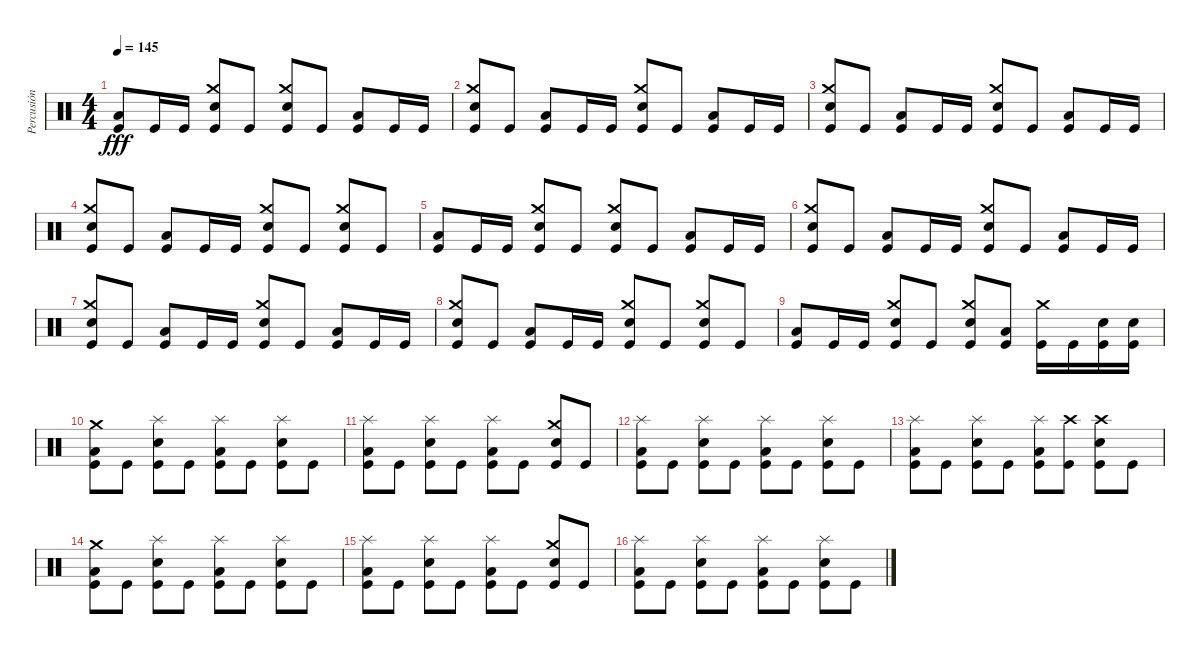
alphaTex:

\track ("Percusión" "Percusión") {instrument percussion}
\staff {score}
\articulation defaults
\ts (4 4)
\tempo 145
\clef neutral
\ks c
("Low Floor Tom (hit)" "Kick (hit)").8{dy fff} "Kick (hit)".16 "Kick (hit)".16 ("Crash medium (hit)" "Snare (hit) 2" "Kick (hit)").8 "Kick (hit)".8 ("Crash medium (hit)" "Snare (hit) 2" "Kick (hit)").8 "Kick (hit)".8 ("Low Floor Tom (hit)" "Kick (hit)").8 "Kick (hit)".16 "Kick (hit)".16 |
("Crash medium (hit)" "Snare (hit) 2" "Kick (hit)").8 "Kick (hit)".8 ("Low Floor Tom (hit)" "Kick (hit)").8 "Kick (hit)".16 "Kick (hit)".16 ("Crash medium (hit)" "Snare (hit) 2" "Kick (hit)").8 "Kick (hit)".8 ("Low Floor Tom (hit)" "Kick (hit)").8 "Kick (hit)".16 "Kick (hit)".16 |
("Crash medium (hit)" "Snare (hit) 2" "Kick (hit)").8 "Kick (hit)".8 ("Low Floor Tom (hit)" "Kick (hit)").8 "Kick (hit)".16 "Kick (hit)".16 ("Crash medium (hit)" "Snare (hit) 2" "Kick (hit)").8 "Kick (hit)".8 ("Low Floor Tom (hit)" "Kick (hit)").8 "Kick (hit)".16 "Kick (hit)".16 |
("Crash medium (hit)" "Snare (hit) 2" "Kick (hit)").8 "Kick (hit)".8 ("Low Floor Tom (hit)" "Kick (hit)").8 "Kick (hit)".16 "Kick (hit)".16 ("Crash medium (hit)" "Snare (hit) 2" "Kick (hit)").8 "Kick (hit)".8 ("Crash medium (hit)" "Snare (hit) 2" "Kick (hit)").8 "Kick (hit)".8 |
("Low Floor Tom (hit)" "Kick (hit)").8 "Kick (hit)".16 "Kick (hit)".16 ("Crash medium (hit)" "Snare (hit) 2" "Kick (hit)").8 "Kick (hit)".8 ("Crash medium (hit)" "Snare (hit) 2" "Kick (hit)").8 "Kick (hit)".8 ("Low Floor Tom (hit)" "Kick (hit)").8 "Kick (hit)".16 "Kick (hit)".16 |
("Crash medium (hit)" "Snare (hit) 2" "Kick (hit)").8 "Kick (hit)".8 ("Low Floor Tom (hit)" "Kick (hit)").8 "Kick (hit)".16 "Kick (hit)".16 ("Crash medium (hit)" "Snare (hit) 2" "Kick (hit)").8 "Kick (hit)".8 ("Low Floor Tom (hit)" "Kick (hit)").8 "Kick (hit)".16 "Kick (hit)".16 |
("Crash medium (hit)" "Snare (hit) 2" "Kick (hit)").8 "Kick (hit)".8 ("Low Floor Tom (hit)" "Kick (hit)").8 "Kick (hit)".16 "Kick (hit)".16 ("Crash medium (hit)" "Snare (hit) 2" "Kick (hit)").8 "Kick (hit)".8 ("Low Floor Tom (hit)" "Kick (hit)").8 "Kick (hit)".16 "Kick (hit)".16 |
("Crash medium (hit)" "Snare (hit) 2" "Kick (hit)").8 "Kick (hit)".8 ("Low Floor Tom (hit)" "Kick (hit)").8 "Kick (hit)".16 "Kick (hit)".16 ("Crash medium (hit)" "Snare (hit) 2" "Kick (hit)").8 "Kick (hit)".8 ("Crash medium (hit)" "Snare (hit) 2" "Kick (hit)").8 "Kick (hit)".8 |
("Low Floor Tom (hit)" "Kick (hit)").8 "Kick (hit)".16 "Kick (hit)".16 ("Crash medium (hit)" "Snare (hit) 2" "Kick (hit)").8 "Kick (hit)".8 ("Crash medium (hit)" "Snare (hit) 2" "Kick (hit)").8 ("Low Floor Tom (hit)" "Kick (hit)").8 ("Crash medium (hit)" "Kick (hit)").16 "Kick (hit)".16 ("Snare (hit) 2" "Kick (hit)").16 ("Snare (hit) 2" "Kick (hit)").16 |
("Crash medium (hit)" "Low Floor Tom (hit)" "Kick (hit)").8 "Kick (hit)".8 ("Splash (hit)" "Snare (hit) 2" "Kick (hit)").8 "Kick (hit)".8 ("Splash (hit)" "Low Floor Tom (hit)" "Kick (hit)").8 "Kick (hit)".8 ("Splash (hit)" "Snare (hit) 2" "Kick (hit)").8 "Kick (hit)".8 |
("Splash (hit)" "Low Floor Tom (hit)" "Kick (hit)").8 "Kick (hit)".8 ("Splash (hit)" "Snare (hit) 2" "Kick (hit)").8 "Kick (hit)".8 ("Splash (hit)" "Low Floor Tom (hit)" "Kick (hit)").8 "Kick (hit)".8 ("Crash medium (hit)" "Snare (hit) 2" "Kick (hit)").8 "Kick (hit)".8 |
("Splash (hit)" "Low Floor Tom (hit)" "Kick (hit)").8 "Kick (hit)".8 ("Splash (hit)" "Snare (hit) 2" "Kick (hit)").8 "Kick (hit)".8 ("Splash (hit)" "Low Floor Tom (hit)" "Kick (hit)").8 "Kick (hit)".8 ("Splash (hit)" "Snare (hit) 2" "Kick (hit)").8 "Kick (hit)".8 |
("Splash (hit)" "Low Floor Tom (hit)" "Kick (hit)").8 "Kick (hit)".8 ("Splash (hit)" "Snare (hit) 2" "Kick (hit)").8 "Kick (hit)".8 ("Splash (hit)" "Low Floor Tom (hit)" "Kick (hit)").8 ("Crash high (hit)" "Kick (hit)").8 ("Crash high (hit)" "Snare (hit) 2" "Kick (hit)").8 "Kick (hit)".8 |
("Crash medium (hit)" "Low Floor Tom (hit)" "Kick (hit)").8 "Kick (hit)".8 ("Splash (hit)" "Snare (hit) 2" "Kick (hit)").8 "Kick (hit)".8 ("Splash (hit)" "Low Floor Tom (hit)" "Kick (hit)").8 "Kick (hit)".8 ("Splash (hit)" "Snare (hit) 2" "Kick (hit)").8 "Kick (hit)".8 |
("Splash (hit)" "Low Floor Tom (hit)" "Kick (hit)").8 "Kick (hit)".8 ("Splash (hit)" "Snare (hit) 2" "Kick (hit)").8 "Kick (hit)".8 ("Splash (hit)" "Low Floor Tom (hit)" "Kick (hit)").8 "Kick (hit)".8 ("Crash medium (hit)" "Snare (hit) 2" "Kick (hit)").8 "Kick (hit)".8 |
("Splash (hit)" "Low Floor Tom (hit)" "Kick (hit)").8 "Kick (hit)".8 ("Splash (hit)" "Snare (hit) 2" "Kick (hit)").8 "Kick (hit)".8 ("Splash (hit)" "Low Floor Tom (hit)" "Kick (hit)").8 "Kick (hit)".8 ("Splash (hit)" "Snare (hit) 2" "Kick (hit)").8 "Kick (hit)".8
